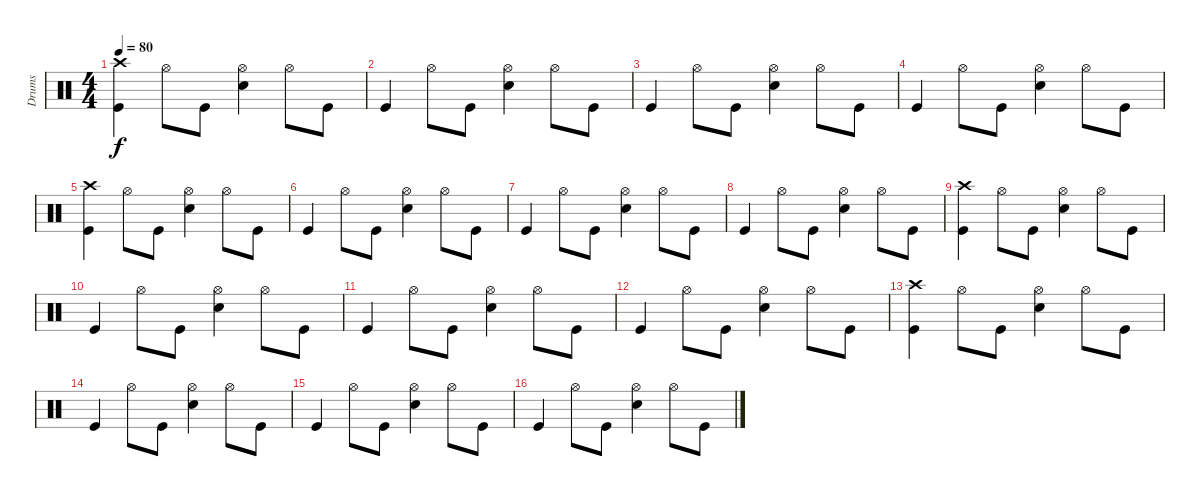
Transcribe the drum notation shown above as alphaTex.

\track ("Drums" "Drums") {instrument percussion}
\staff {score}
\articulation defaults
\ts (4 4)
\tempo 80
\clef neutral
\ks c
("Crash high (hit)" "Kick (hit)").4{dy f} "Hi-Hat (open)".8 "Kick (hit)".8 ("Hi-Hat (open)" "Snare (hit) 2").4 "Hi-Hat (open)".8 "Kick (hit)".8 |
"Kick (hit)".4 "Hi-Hat (open)".8 "Kick (hit)".8 ("Hi-Hat (open)" "Snare (hit) 2").4 "Hi-Hat (open)".8 "Kick (hit)".8 |
"Kick (hit)".4 "Hi-Hat (open)".8 "Kick (hit)".8 ("Hi-Hat (open)" "Snare (hit) 2").4 "Hi-Hat (open)".8 "Kick (hit)".8 |
"Kick (hit)".4 "Hi-Hat (open)".8 "Kick (hit)".8 ("Hi-Hat (open)" "Snare (hit) 2").4 "Hi-Hat (open)".8 "Kick (hit)".8 |
("Crash high (hit)" "Kick (hit)").4 "Hi-Hat (open)".8 "Kick (hit)".8 ("Hi-Hat (open)" "Snare (hit) 2").4 "Hi-Hat (open)".8 "Kick (hit)".8 |
"Kick (hit)".4 "Hi-Hat (open)".8 "Kick (hit)".8 ("Hi-Hat (open)" "Snare (hit) 2").4 "Hi-Hat (open)".8 "Kick (hit)".8 |
"Kick (hit)".4 "Hi-Hat (open)".8 "Kick (hit)".8 ("Hi-Hat (open)" "Snare (hit) 2").4 "Hi-Hat (open)".8 "Kick (hit)".8 |
"Kick (hit)".4 "Hi-Hat (open)".8 "Kick (hit)".8 ("Hi-Hat (open)" "Snare (hit) 2").4 "Hi-Hat (open)".8 "Kick (hit)".8 |
("Crash high (hit)" "Kick (hit)").4 "Hi-Hat (open)".8 "Kick (hit)".8 ("Hi-Hat (open)" "Snare (hit) 2").4 "Hi-Hat (open)".8 "Kick (hit)".8 |
"Kick (hit)".4 "Hi-Hat (open)".8 "Kick (hit)".8 ("Hi-Hat (open)" "Snare (hit) 2").4 "Hi-Hat (open)".8 "Kick (hit)".8 |
"Kick (hit)".4 "Hi-Hat (open)".8 "Kick (hit)".8 ("Hi-Hat (open)" "Snare (hit) 2").4 "Hi-Hat (open)".8 "Kick (hit)".8 |
"Kick (hit)".4 "Hi-Hat (open)".8 "Kick (hit)".8 ("Hi-Hat (open)" "Snare (hit) 2").4 "Hi-Hat (open)".8 "Kick (hit)".8 |
("Crash high (hit)" "Kick (hit)").4 "Hi-Hat (open)".8 "Kick (hit)".8 ("Hi-Hat (open)" "Snare (hit) 2").4 "Hi-Hat (open)".8 "Kick (hit)".8 |
"Kick (hit)".4 "Hi-Hat (open)".8 "Kick (hit)".8 ("Hi-Hat (open)" "Snare (hit) 2").4 "Hi-Hat (open)".8 "Kick (hit)".8 |
"Kick (hit)".4 "Hi-Hat (open)".8 "Kick (hit)".8 ("Hi-Hat (open)" "Snare (hit) 2").4 "Hi-Hat (open)".8 "Kick (hit)".8 |
"Kick (hit)".4 "Hi-Hat (open)".8 "Kick (hit)".8 ("Hi-Hat (open)" "Snare (hit) 2").4 "Hi-Hat (open)".8 "Kick (hit)".8
